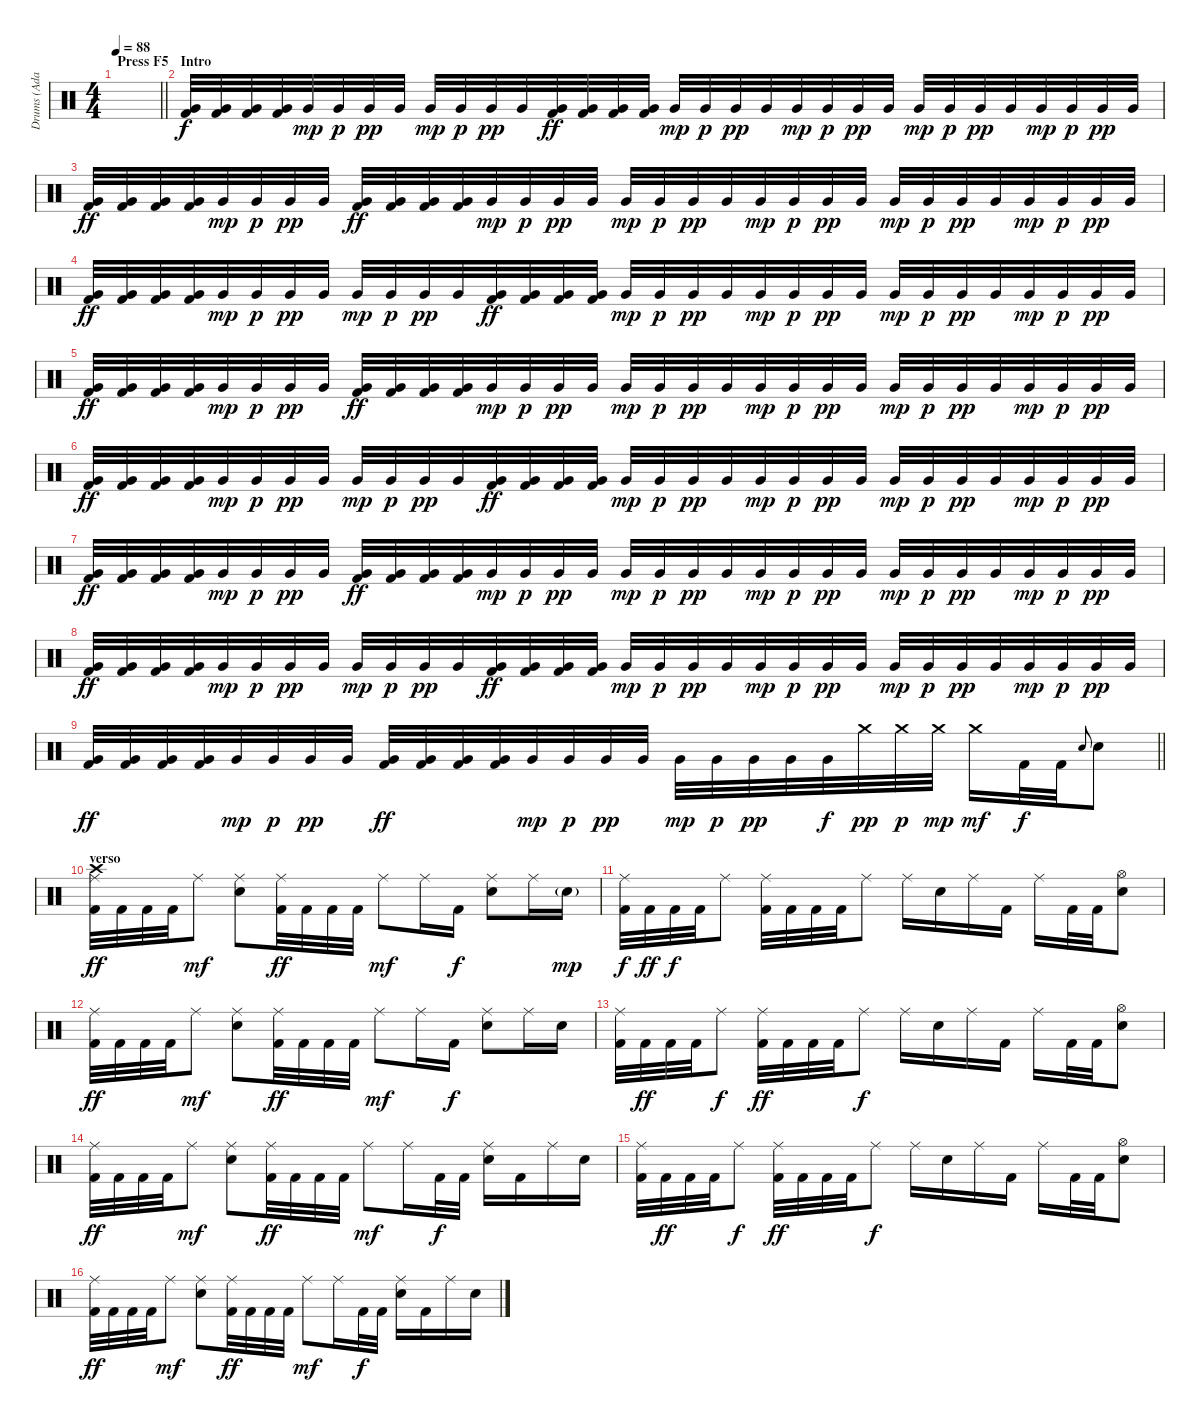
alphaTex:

\track ("Drums (Adam Morgan)" "Drums (Ada") {instrument percussion}
\staff {score}
\articulation defaults
\ts (4 4)
\section ("" "Press F5")
\tempo 88
\clef neutral
\barLineRight lightlight
\ks c
|
\section ("" "Intro")
("Very Low Tom (hit)" "Kick (hit) 2").32 ("Very Low Tom (hit)" "Kick (hit) 2").32 ("Very Low Tom (hit)" "Kick (hit) 2").32 ("Very Low Tom (hit)" "Kick (hit) 2").32 "Very Low Tom (hit)".32{dy mp} "Very Low Tom (hit)".32{dy p} "Very Low Tom (hit)".32{dy pp} "Very Low Tom (hit)".32 "Very Low Tom (hit)".32{dy mp} "Very Low Tom (hit)".32{dy p} "Very Low Tom (hit)".32{dy pp} "Very Low Tom (hit)".32 ("Very Low Tom (hit)" "Kick (hit) 2").32{dy ff} ("Very Low Tom (hit)" "Kick (hit) 2").32 ("Very Low Tom (hit)" "Kick (hit) 2").32 ("Very Low Tom (hit)" "Kick (hit) 2").32 "Very Low Tom (hit)".32{dy mp} "Very Low Tom (hit)".32{dy p} "Very Low Tom (hit)".32{dy pp} "Very Low Tom (hit)".32 "Very Low Tom (hit)".32{dy mp} "Very Low Tom (hit)".32{dy p} "Very Low Tom (hit)".32{dy pp} "Very Low Tom (hit)".32 "Very Low Tom (hit)".32{dy mp} "Very Low Tom (hit)".32{dy p} "Very Low Tom (hit)".32{dy pp} "Very Low Tom (hit)".32 "Very Low Tom (hit)".32{dy mp} "Very Low Tom (hit)".32{dy p} "Very Low Tom (hit)".32{dy pp} "Very Low Tom (hit)".32 |
("Very Low Tom (hit)" "Kick (hit) 2").32{dy ff} ("Very Low Tom (hit)" "Kick (hit) 2").32 ("Very Low Tom (hit)" "Kick (hit) 2").32 ("Very Low Tom (hit)" "Kick (hit) 2").32 "Very Low Tom (hit)".32{dy mp} "Very Low Tom (hit)".32{dy p} "Very Low Tom (hit)".32{dy pp} "Very Low Tom (hit)".32 ("Very Low Tom (hit)" "Kick (hit) 2").32{dy ff} ("Very Low Tom (hit)" "Kick (hit) 2").32 ("Very Low Tom (hit)" "Kick (hit) 2").32 ("Very Low Tom (hit)" "Kick (hit) 2").32 "Very Low Tom (hit)".32{dy mp} "Very Low Tom (hit)".32{dy p} "Very Low Tom (hit)".32{dy pp} "Very Low Tom (hit)".32 "Very Low Tom (hit)".32{dy mp} "Very Low Tom (hit)".32{dy p} "Very Low Tom (hit)".32{dy pp} "Very Low Tom (hit)".32 "Very Low Tom (hit)".32{dy mp} "Very Low Tom (hit)".32{dy p} "Very Low Tom (hit)".32{dy pp} "Very Low Tom (hit)".32 "Very Low Tom (hit)".32{dy mp} "Very Low Tom (hit)".32{dy p} "Very Low Tom (hit)".32{dy pp} "Very Low Tom (hit)".32 "Very Low Tom (hit)".32{dy mp} "Very Low Tom (hit)".32{dy p} "Very Low Tom (hit)".32{dy pp} "Very Low Tom (hit)".32 |
("Very Low Tom (hit)" "Kick (hit) 2").32{dy ff} ("Very Low Tom (hit)" "Kick (hit) 2").32 ("Very Low Tom (hit)" "Kick (hit) 2").32 ("Very Low Tom (hit)" "Kick (hit) 2").32 "Very Low Tom (hit)".32{dy mp} "Very Low Tom (hit)".32{dy p} "Very Low Tom (hit)".32{dy pp} "Very Low Tom (hit)".32 "Very Low Tom (hit)".32{dy mp} "Very Low Tom (hit)".32{dy p} "Very Low Tom (hit)".32{dy pp} "Very Low Tom (hit)".32 ("Very Low Tom (hit)" "Kick (hit) 2").32{dy ff} ("Very Low Tom (hit)" "Kick (hit) 2").32 ("Very Low Tom (hit)" "Kick (hit) 2").32 ("Very Low Tom (hit)" "Kick (hit) 2").32 "Very Low Tom (hit)".32{dy mp} "Very Low Tom (hit)".32{dy p} "Very Low Tom (hit)".32{dy pp} "Very Low Tom (hit)".32 "Very Low Tom (hit)".32{dy mp} "Very Low Tom (hit)".32{dy p} "Very Low Tom (hit)".32{dy pp} "Very Low Tom (hit)".32 "Very Low Tom (hit)".32{dy mp} "Very Low Tom (hit)".32{dy p} "Very Low Tom (hit)".32{dy pp} "Very Low Tom (hit)".32 "Very Low Tom (hit)".32{dy mp} "Very Low Tom (hit)".32{dy p} "Very Low Tom (hit)".32{dy pp} "Very Low Tom (hit)".32 |
("Very Low Tom (hit)" "Kick (hit) 2").32{dy ff} ("Very Low Tom (hit)" "Kick (hit) 2").32 ("Very Low Tom (hit)" "Kick (hit) 2").32 ("Very Low Tom (hit)" "Kick (hit) 2").32 "Very Low Tom (hit)".32{dy mp} "Very Low Tom (hit)".32{dy p} "Very Low Tom (hit)".32{dy pp} "Very Low Tom (hit)".32 ("Very Low Tom (hit)" "Kick (hit) 2").32{dy ff} ("Very Low Tom (hit)" "Kick (hit) 2").32 ("Very Low Tom (hit)" "Kick (hit) 2").32 ("Very Low Tom (hit)" "Kick (hit) 2").32 "Very Low Tom (hit)".32{dy mp} "Very Low Tom (hit)".32{dy p} "Very Low Tom (hit)".32{dy pp} "Very Low Tom (hit)".32 "Very Low Tom (hit)".32{dy mp} "Very Low Tom (hit)".32{dy p} "Very Low Tom (hit)".32{dy pp} "Very Low Tom (hit)".32 "Very Low Tom (hit)".32{dy mp} "Very Low Tom (hit)".32{dy p} "Very Low Tom (hit)".32{dy pp} "Very Low Tom (hit)".32 "Very Low Tom (hit)".32{dy mp} "Very Low Tom (hit)".32{dy p} "Very Low Tom (hit)".32{dy pp} "Very Low Tom (hit)".32 "Very Low Tom (hit)".32{dy mp} "Very Low Tom (hit)".32{dy p} "Very Low Tom (hit)".32{dy pp} "Very Low Tom (hit)".32 |
("Very Low Tom (hit)" "Kick (hit) 2").32{dy ff} ("Very Low Tom (hit)" "Kick (hit) 2").32 ("Very Low Tom (hit)" "Kick (hit) 2").32 ("Very Low Tom (hit)" "Kick (hit) 2").32 "Very Low Tom (hit)".32{dy mp} "Very Low Tom (hit)".32{dy p} "Very Low Tom (hit)".32{dy pp} "Very Low Tom (hit)".32 "Very Low Tom (hit)".32{dy mp} "Very Low Tom (hit)".32{dy p} "Very Low Tom (hit)".32{dy pp} "Very Low Tom (hit)".32 ("Very Low Tom (hit)" "Kick (hit) 2").32{dy ff} ("Very Low Tom (hit)" "Kick (hit) 2").32 ("Very Low Tom (hit)" "Kick (hit) 2").32 ("Very Low Tom (hit)" "Kick (hit) 2").32 "Very Low Tom (hit)".32{dy mp} "Very Low Tom (hit)".32{dy p} "Very Low Tom (hit)".32{dy pp} "Very Low Tom (hit)".32 "Very Low Tom (hit)".32{dy mp} "Very Low Tom (hit)".32{dy p} "Very Low Tom (hit)".32{dy pp} "Very Low Tom (hit)".32 "Very Low Tom (hit)".32{dy mp} "Very Low Tom (hit)".32{dy p} "Very Low Tom (hit)".32{dy pp} "Very Low Tom (hit)".32 "Very Low Tom (hit)".32{dy mp} "Very Low Tom (hit)".32{dy p} "Very Low Tom (hit)".32{dy pp} "Very Low Tom (hit)".32 |
("Very Low Tom (hit)" "Kick (hit) 2").32{dy ff} ("Very Low Tom (hit)" "Kick (hit) 2").32 ("Very Low Tom (hit)" "Kick (hit) 2").32 ("Very Low Tom (hit)" "Kick (hit) 2").32 "Very Low Tom (hit)".32{dy mp} "Very Low Tom (hit)".32{dy p} "Very Low Tom (hit)".32{dy pp} "Very Low Tom (hit)".32 ("Very Low Tom (hit)" "Kick (hit) 2").32{dy ff} ("Very Low Tom (hit)" "Kick (hit) 2").32 ("Very Low Tom (hit)" "Kick (hit) 2").32 ("Very Low Tom (hit)" "Kick (hit) 2").32 "Very Low Tom (hit)".32{dy mp} "Very Low Tom (hit)".32{dy p} "Very Low Tom (hit)".32{dy pp} "Very Low Tom (hit)".32 "Very Low Tom (hit)".32{dy mp} "Very Low Tom (hit)".32{dy p} "Very Low Tom (hit)".32{dy pp} "Very Low Tom (hit)".32 "Very Low Tom (hit)".32{dy mp} "Very Low Tom (hit)".32{dy p} "Very Low Tom (hit)".32{dy pp} "Very Low Tom (hit)".32 "Very Low Tom (hit)".32{dy mp} "Very Low Tom (hit)".32{dy p} "Very Low Tom (hit)".32{dy pp} "Very Low Tom (hit)".32 "Very Low Tom (hit)".32{dy mp} "Very Low Tom (hit)".32{dy p} "Very Low Tom (hit)".32{dy pp} "Very Low Tom (hit)".32 |
("Very Low Tom (hit)" "Kick (hit) 2").32{dy ff} ("Very Low Tom (hit)" "Kick (hit) 2").32 ("Very Low Tom (hit)" "Kick (hit) 2").32 ("Very Low Tom (hit)" "Kick (hit) 2").32 "Very Low Tom (hit)".32{dy mp} "Very Low Tom (hit)".32{dy p} "Very Low Tom (hit)".32{dy pp} "Very Low Tom (hit)".32 "Very Low Tom (hit)".32{dy mp} "Very Low Tom (hit)".32{dy p} "Very Low Tom (hit)".32{dy pp} "Very Low Tom (hit)".32 ("Very Low Tom (hit)" "Kick (hit) 2").32{dy ff} ("Very Low Tom (hit)" "Kick (hit) 2").32 ("Very Low Tom (hit)" "Kick (hit) 2").32 ("Very Low Tom (hit)" "Kick (hit) 2").32 "Very Low Tom (hit)".32{dy mp} "Very Low Tom (hit)".32{dy p} "Very Low Tom (hit)".32{dy pp} "Very Low Tom (hit)".32 "Very Low Tom (hit)".32{dy mp} "Very Low Tom (hit)".32{dy p} "Very Low Tom (hit)".32{dy pp} "Very Low Tom (hit)".32 "Very Low Tom (hit)".32{dy mp} "Very Low Tom (hit)".32{dy p} "Very Low Tom (hit)".32{dy pp} "Very Low Tom (hit)".32 "Very Low Tom (hit)".32{dy mp} "Very Low Tom (hit)".32{dy p} "Very Low Tom (hit)".32{dy pp} "Very Low Tom (hit)".32 |
\barLineRight lightlight
("Very Low Tom (hit)" "Kick (hit) 2").32{dy ff} ("Very Low Tom (hit)" "Kick (hit) 2").32 ("Very Low Tom (hit)" "Kick (hit) 2").32 ("Very Low Tom (hit)" "Kick (hit) 2").32 "Very Low Tom (hit)".32{dy mp} "Very Low Tom (hit)".32{dy p} "Very Low Tom (hit)".32{dy pp} "Very Low Tom (hit)".32 ("Very Low Tom (hit)" "Kick (hit) 2").32{dy ff} ("Very Low Tom (hit)" "Kick (hit) 2").32 ("Very Low Tom (hit)" "Kick (hit) 2").32 ("Very Low Tom (hit)" "Kick (hit) 2").32 "Very Low Tom (hit)".32{dy mp} "Very Low Tom (hit)".32{dy p} "Very Low Tom (hit)".32{dy pp} "Very Low Tom (hit)".32 "Very Low Tom (hit)".32{dy mp} "Very Low Tom (hit)".32{dy p} "Very Low Tom (hit)".32{dy pp} "Very Low Tom (hit)".32 "Very Low Tom (hit)".32{dy f} "Crash medium (hit)".32{dy pp} "Crash medium (hit)".32{dy p} "Crash medium (hit)".32{dy mp} "Crash medium (hit)".16{dy mf} "Kick (hit) 2".32{dy f} "Kick (hit) 2".32 "Snare (hit) 2".8{gr onbeat} "Snare (hit) 2".8 |
\section ("" "verso")
("Crash high (hit)" "Ride (middle)" "Kick (hit) 2").32{dy ff} "Kick (hit) 2".32 "Kick (hit) 2".32 "Kick (hit) 2".32 "Ride (middle)".8{dy mf} ("Ride (middle)" "Snare (hit) 2").8 ("Ride (middle)" "Kick (hit) 2").32{dy ff} "Kick (hit) 2".32 "Kick (hit) 2".32 "Kick (hit) 2".32 "Ride (middle)".8{dy mf} "Ride (middle)".16 "Kick (hit) 2".16{dy f} ("Ride (middle)" "Snare (hit) 2").8 "Ride (middle)".16 "Snare (hit) 2"{g}.16{dy mp} |
("Ride (middle)" "Kick (hit) 2").32{dy f} "Kick (hit) 2".32{dy ff} "Kick (hit) 2".32{dy f} "Kick (hit) 2".32 "Ride (middle)".8 ("Ride (middle)" "Kick (hit) 2").32 "Kick (hit) 2".32 "Kick (hit) 2".32 "Kick (hit) 2".32 "Ride (middle)".8 "Ride (middle)".16 "Snare (hit) 2".16 "Ride (middle)".16 "Kick (hit) 2".16 "Ride (middle)".16 "Kick (hit) 2".32 "Kick (hit) 2".32 ("Hi-Hat (open)" "Snare (hit) 2").8 |
("Ride (middle)" "Kick (hit) 2").32{dy ff} "Kick (hit) 2".32 "Kick (hit) 2".32 "Kick (hit) 2".32 "Ride (middle)".8{dy mf} ("Ride (middle)" "Snare (hit) 2").8 ("Ride (middle)" "Kick (hit) 2").32{dy ff} "Kick (hit) 2".32 "Kick (hit) 2".32 "Kick (hit) 2".32 "Ride (middle)".8{dy mf} "Ride (middle)".16 "Kick (hit) 2".16{dy f} ("Ride (middle)" "Snare (hit) 2").8 "Ride (middle)".16 "Snare (hit) 2".16 |
("Ride (middle)" "Kick (hit) 2").32 "Kick (hit) 2".32{dy ff} "Kick (hit) 2".32 "Kick (hit) 2".32 "Ride (middle)".8{dy f} ("Ride (middle)" "Kick (hit) 2").32{dy ff} "Kick (hit) 2".32 "Kick (hit) 2".32 "Kick (hit) 2".32 "Ride (middle)".8{dy f} "Ride (middle)".16 "Snare (hit) 2".16 "Ride (middle)".16 "Kick (hit) 2".16 "Ride (middle)".16 "Kick (hit) 2".32 "Kick (hit) 2".32 ("Hi-Hat (open)" "Snare (hit) 2").8 |
("Ride (middle)" "Kick (hit) 2").32{dy ff} "Kick (hit) 2".32 "Kick (hit) 2".32 "Kick (hit) 2".32 "Ride (middle)".8{dy mf} ("Ride (middle)" "Snare (hit) 2").8 ("Ride (middle)" "Kick (hit) 2").32{dy ff} "Kick (hit) 2".32 "Kick (hit) 2".32 "Kick (hit) 2".32 "Ride (middle)".8{dy mf} "Ride (middle)".16 "Kick (hit) 2".32{dy f} "Kick (hit) 2".32 ("Ride (middle)" "Snare (hit) 2").16 "Kick (hit) 2".16 "Ride (middle)".16 "Snare (hit) 2".16 |
("Ride (middle)" "Kick (hit) 2").32 "Kick (hit) 2".32{dy ff} "Kick (hit) 2".32 "Kick (hit) 2".32 "Ride (middle)".8{dy f} ("Ride (middle)" "Kick (hit) 2").32{dy ff} "Kick (hit) 2".32 "Kick (hit) 2".32 "Kick (hit) 2".32 "Ride (middle)".8{dy f} "Ride (middle)".16 "Snare (hit) 2".16 "Ride (middle)".16 "Kick (hit) 2".16 "Ride (middle)".16 "Kick (hit) 2".32 "Kick (hit) 2".32 ("Hi-Hat (open)" "Snare (hit) 2").8 |
("Ride (middle)" "Kick (hit) 2").32{dy ff} "Kick (hit) 2".32 "Kick (hit) 2".32 "Kick (hit) 2".32 "Ride (middle)".8{dy mf} ("Ride (middle)" "Snare (hit) 2").8 ("Ride (middle)" "Kick (hit) 2").32{dy ff} "Kick (hit) 2".32 "Kick (hit) 2".32 "Kick (hit) 2".32 "Ride (middle)".8{dy mf} "Ride (middle)".16 "Kick (hit) 2".32{dy f} "Kick (hit) 2".32 ("Ride (middle)" "Snare (hit) 2").16 "Kick (hit) 2".16 "Ride (middle)".16 "Snare (hit) 2".16
